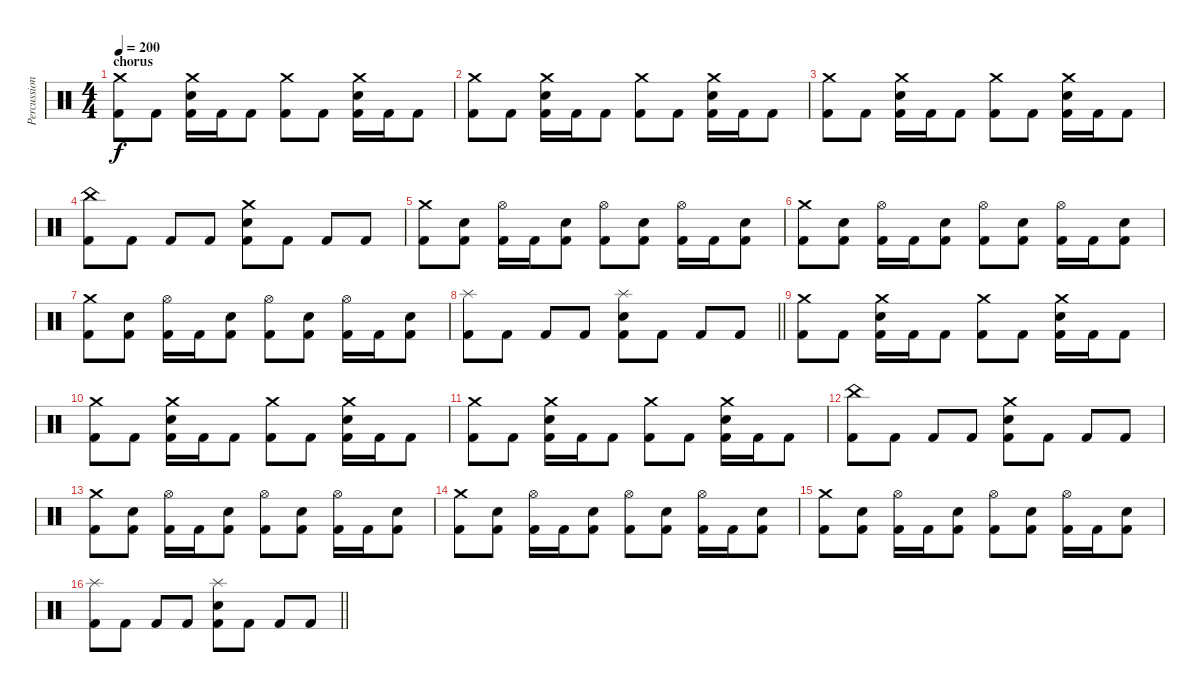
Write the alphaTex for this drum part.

\track ("Percussion" "Percussion") {instrument percussion}
\staff {score}
\articulation defaults
\ts (4 4)
\section ("" "chorus")
\tempo 200
\clef neutral
\ks c
("Crash medium (hit)" "Kick (hit) 2").8{dy f} "Kick (hit) 2".8 ("Crash medium (hit)" "Electric Snare (hit)" "Kick (hit) 2").16 "Kick (hit) 2".16 "Kick (hit) 2".8 ("Crash medium (hit)" "Kick (hit) 2").8 "Kick (hit) 2".8 ("Crash medium (hit)" "Electric Snare (hit)" "Kick (hit) 2").16 "Kick (hit) 2".16 "Kick (hit) 2".8 |
("Crash medium (hit)" "Kick (hit) 2").8 "Kick (hit) 2".8 ("Crash medium (hit)" "Electric Snare (hit)" "Kick (hit) 2").16 "Kick (hit) 2".16 "Kick (hit) 2".8 ("Crash medium (hit)" "Kick (hit) 2").8 "Kick (hit) 2".8 ("Crash medium (hit)" "Electric Snare (hit)" "Kick (hit) 2").16 "Kick (hit) 2".16 "Kick (hit) 2".8 |
("Crash medium (hit)" "Kick (hit) 2").8 "Kick (hit) 2".8 ("Crash medium (hit)" "Electric Snare (hit)" "Kick (hit) 2").16 "Kick (hit) 2".16 "Kick (hit) 2".8 ("Crash medium (hit)" "Kick (hit) 2").8 "Kick (hit) 2".8 ("Crash medium (hit)" "Electric Snare (hit)" "Kick (hit) 2").16 "Kick (hit) 2".16 "Kick (hit) 2".8 |
("China (hit)" "Kick (hit) 2").8 "Kick (hit) 2".8 "Kick (hit) 2".8 "Kick (hit) 2".8 ("Crash medium (hit)" "Electric Snare (hit)" "Kick (hit) 2").8 "Kick (hit) 2".8 "Kick (hit) 2".8 "Kick (hit) 2".8 |
("Crash medium (hit)" "Kick (hit) 2").8 ("Electric Snare (hit)" "Kick (hit) 2").8 ("Hi-Hat (open)" "Kick (hit) 2").16 "Kick (hit) 2".16 ("Electric Snare (hit)" "Kick (hit) 2").8 ("Hi-Hat (open)" "Kick (hit) 2").8 ("Electric Snare (hit)" "Kick (hit) 2").8 ("Hi-Hat (open)" "Kick (hit) 2").16 "Kick (hit) 2".16 ("Electric Snare (hit)" "Kick (hit) 2").8 |
("Crash medium (hit)" "Kick (hit) 2").8 ("Electric Snare (hit)" "Kick (hit) 2").8 ("Hi-Hat (open)" "Kick (hit) 2").16 "Kick (hit) 2".16 ("Electric Snare (hit)" "Kick (hit) 2").8 ("Hi-Hat (open)" "Kick (hit) 2").8 ("Electric Snare (hit)" "Kick (hit) 2").8 ("Hi-Hat (open)" "Kick (hit) 2").16 "Kick (hit) 2".16 ("Electric Snare (hit)" "Kick (hit) 2").8 |
("Crash medium (hit)" "Kick (hit) 2").8 ("Electric Snare (hit)" "Kick (hit) 2").8 ("Hi-Hat (open)" "Kick (hit) 2").16 "Kick (hit) 2".16 ("Electric Snare (hit)" "Kick (hit) 2").8 ("Hi-Hat (open)" "Kick (hit) 2").8 ("Electric Snare (hit)" "Kick (hit) 2").8 ("Hi-Hat (open)" "Kick (hit) 2").16 "Kick (hit) 2".16 ("Electric Snare (hit)" "Kick (hit) 2").8 |
\barLineRight lightlight
("Splash (hit)" "Kick (hit) 2").8 "Kick (hit) 2".8 "Kick (hit) 2".8 "Kick (hit) 2".8 ("Splash (hit)" "Electric Snare (hit)" "Kick (hit) 2").8 "Kick (hit) 2".8 "Kick (hit) 2".8 "Kick (hit) 2".8 |
("Crash medium (hit)" "Kick (hit) 2").8 "Kick (hit) 2".8 ("Crash medium (hit)" "Electric Snare (hit)" "Kick (hit) 2").16 "Kick (hit) 2".16 "Kick (hit) 2".8 ("Crash medium (hit)" "Kick (hit) 2").8 "Kick (hit) 2".8 ("Crash medium (hit)" "Electric Snare (hit)" "Kick (hit) 2").16 "Kick (hit) 2".16 "Kick (hit) 2".8 |
("Crash medium (hit)" "Kick (hit) 2").8 "Kick (hit) 2".8 ("Crash medium (hit)" "Electric Snare (hit)" "Kick (hit) 2").16 "Kick (hit) 2".16 "Kick (hit) 2".8 ("Crash medium (hit)" "Kick (hit) 2").8 "Kick (hit) 2".8 ("Crash medium (hit)" "Electric Snare (hit)" "Kick (hit) 2").16 "Kick (hit) 2".16 "Kick (hit) 2".8 |
("Crash medium (hit)" "Kick (hit) 2").8 "Kick (hit) 2".8 ("Crash medium (hit)" "Electric Snare (hit)" "Kick (hit) 2").16 "Kick (hit) 2".16 "Kick (hit) 2".8 ("Crash medium (hit)" "Kick (hit) 2").8 "Kick (hit) 2".8 ("Crash medium (hit)" "Electric Snare (hit)" "Kick (hit) 2").16 "Kick (hit) 2".16 "Kick (hit) 2".8 |
("China (hit)" "Kick (hit) 2").8 "Kick (hit) 2".8 "Kick (hit) 2".8 "Kick (hit) 2".8 ("Crash medium (hit)" "Electric Snare (hit)" "Kick (hit) 2").8 "Kick (hit) 2".8 "Kick (hit) 2".8 "Kick (hit) 2".8 |
("Crash medium (hit)" "Kick (hit) 2").8 ("Electric Snare (hit)" "Kick (hit) 2").8 ("Hi-Hat (open)" "Kick (hit) 2").16 "Kick (hit) 2".16 ("Electric Snare (hit)" "Kick (hit) 2").8 ("Hi-Hat (open)" "Kick (hit) 2").8 ("Electric Snare (hit)" "Kick (hit) 2").8 ("Hi-Hat (open)" "Kick (hit) 2").16 "Kick (hit) 2".16 ("Electric Snare (hit)" "Kick (hit) 2").8 |
("Crash medium (hit)" "Kick (hit) 2").8 ("Electric Snare (hit)" "Kick (hit) 2").8 ("Hi-Hat (open)" "Kick (hit) 2").16 "Kick (hit) 2".16 ("Electric Snare (hit)" "Kick (hit) 2").8 ("Hi-Hat (open)" "Kick (hit) 2").8 ("Electric Snare (hit)" "Kick (hit) 2").8 ("Hi-Hat (open)" "Kick (hit) 2").16 "Kick (hit) 2".16 ("Electric Snare (hit)" "Kick (hit) 2").8 |
("Crash medium (hit)" "Kick (hit) 2").8 ("Electric Snare (hit)" "Kick (hit) 2").8 ("Hi-Hat (open)" "Kick (hit) 2").16 "Kick (hit) 2".16 ("Electric Snare (hit)" "Kick (hit) 2").8 ("Hi-Hat (open)" "Kick (hit) 2").8 ("Electric Snare (hit)" "Kick (hit) 2").8 ("Hi-Hat (open)" "Kick (hit) 2").16 "Kick (hit) 2".16 ("Electric Snare (hit)" "Kick (hit) 2").8 |
\barLineRight lightlight
("Splash (hit)" "Kick (hit) 2").8 "Kick (hit) 2".8 "Kick (hit) 2".8 "Kick (hit) 2".8 ("Splash (hit)" "Electric Snare (hit)" "Kick (hit) 2").8 "Kick (hit) 2".8 "Kick (hit) 2".8 "Kick (hit) 2".8
